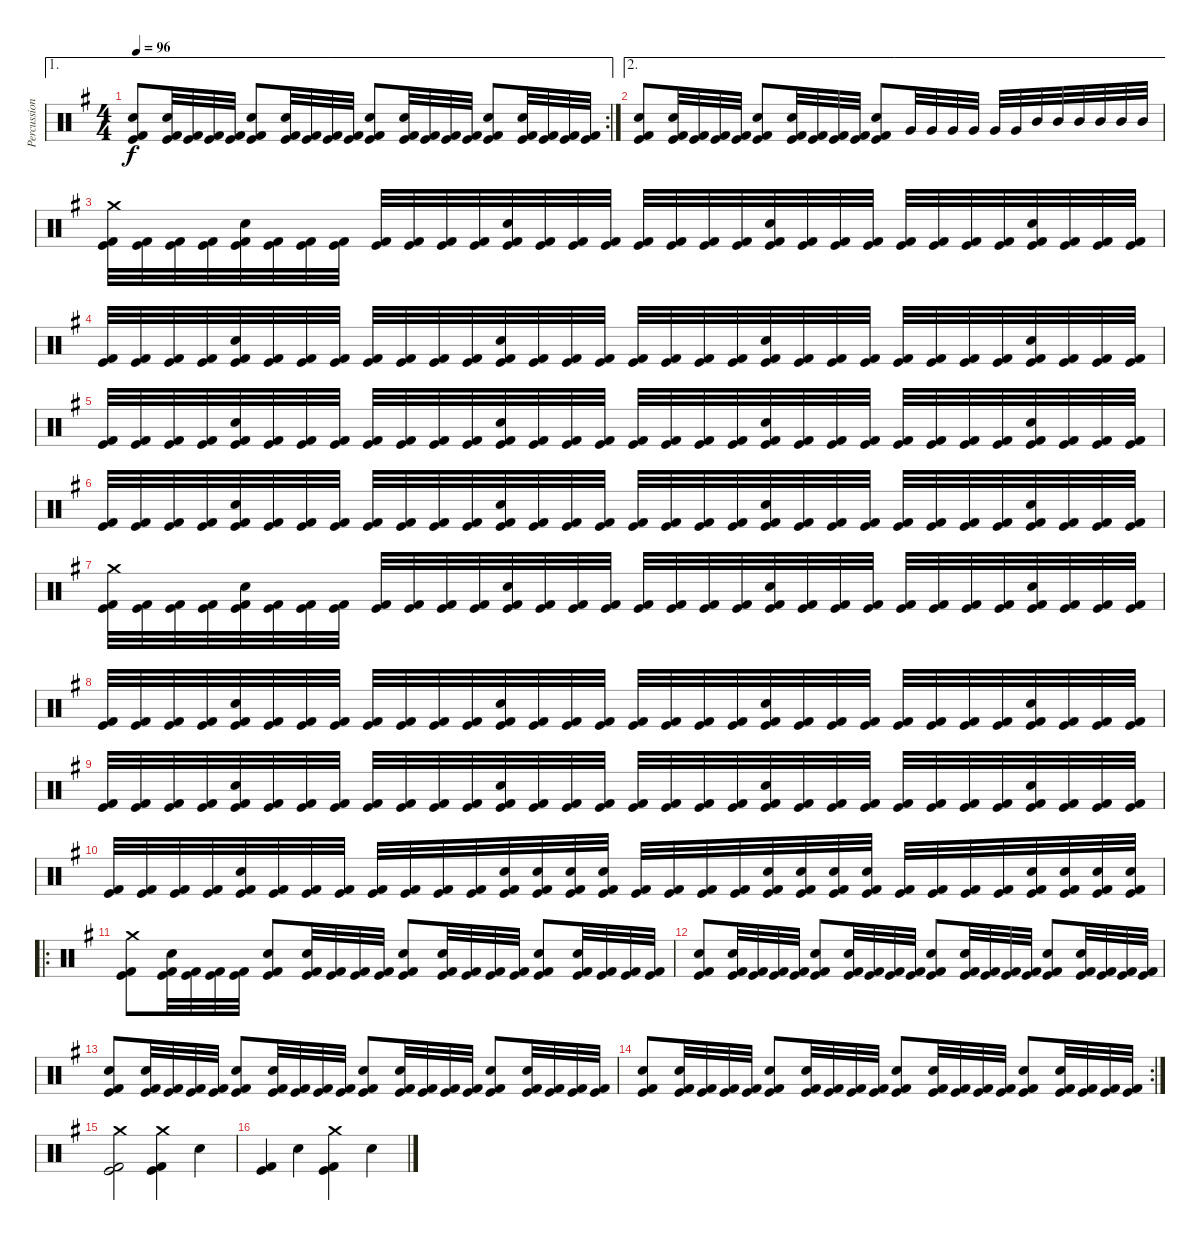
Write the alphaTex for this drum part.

\track ("Percussion" "Percussion") {instrument percussion}
\staff {score}
\articulation defaults
\ae 1
\rc 2
\ts (4 4)
\tempo 96
\clef neutral
\ks g
("Electric Snare (hit)" "Kick (hit) 2" "Kick (hit)").8{dy f} ("Electric Snare (hit)" "Kick (hit) 2" "Kick (hit)").32 ("Kick (hit) 2" "Kick (hit)").32 ("Kick (hit) 2" "Kick (hit)").32 ("Kick (hit) 2" "Kick (hit)").32 ("Electric Snare (hit)" "Kick (hit) 2" "Kick (hit)").8 ("Electric Snare (hit)" "Kick (hit) 2" "Kick (hit)").32 ("Kick (hit) 2" "Kick (hit)").32 ("Kick (hit) 2" "Kick (hit)").32 ("Kick (hit) 2" "Kick (hit)").32 ("Electric Snare (hit)" "Kick (hit) 2" "Kick (hit)").8 ("Electric Snare (hit)" "Kick (hit) 2" "Kick (hit)").32 ("Kick (hit) 2" "Kick (hit)").32 ("Kick (hit) 2" "Kick (hit)").32 ("Kick (hit) 2" "Kick (hit)").32 ("Electric Snare (hit)" "Kick (hit) 2" "Kick (hit)").8 ("Electric Snare (hit)" "Kick (hit) 2" "Kick (hit)").32 ("Kick (hit) 2" "Kick (hit)").32 ("Kick (hit) 2" "Kick (hit)").32 ("Kick (hit) 2" "Kick (hit)").32 |
\ae 2
("Electric Snare (hit)" "Kick (hit) 2" "Kick (hit)").8 ("Electric Snare (hit)" "Kick (hit) 2" "Kick (hit)").32 ("Kick (hit) 2" "Kick (hit)").32 ("Kick (hit) 2" "Kick (hit)").32 ("Kick (hit) 2" "Kick (hit)").32 ("Electric Snare (hit)" "Kick (hit) 2" "Kick (hit)").8 ("Electric Snare (hit)" "Kick (hit) 2" "Kick (hit)").32 ("Kick (hit) 2" "Kick (hit)").32 ("Kick (hit) 2" "Kick (hit)").32 ("Kick (hit) 2" "Kick (hit)").32 ("Electric Snare (hit)" "Kick (hit) 2" "Kick (hit)").8 "Very Low Tom (hit)".32 "Very Low Tom (hit)".32 "Very Low Tom (hit)".32 "Very Low Tom (hit)".32 "Very Low Tom (hit)".32 "Very Low Tom (hit)".32 "Mid Tom (hit)".32 "Mid Tom (hit)".32 "Mid Tom (hit)".32 "Mid Tom (hit)".32 "Mid Tom (hit)".32 "Mid Tom (hit)".32 |
("Crash medium (hit)" "Kick (hit)" "Kick (hit) 2").32 ("Kick (hit)" "Kick (hit) 2").32 ("Kick (hit)" "Kick (hit) 2").32 ("Kick (hit)" "Kick (hit) 2").32 ("Electric Snare (hit)" "Kick (hit)" "Kick (hit) 2").32 ("Kick (hit)" "Kick (hit) 2").32 ("Kick (hit)" "Kick (hit) 2").32 ("Kick (hit)" "Kick (hit) 2").32 ("Kick (hit)" "Kick (hit) 2").32 ("Kick (hit)" "Kick (hit) 2").32 ("Kick (hit)" "Kick (hit) 2").32 ("Kick (hit)" "Kick (hit) 2").32 ("Electric Snare (hit)" "Kick (hit)" "Kick (hit) 2").32 ("Kick (hit)" "Kick (hit) 2").32 ("Kick (hit)" "Kick (hit) 2").32 ("Kick (hit)" "Kick (hit) 2").32 ("Kick (hit)" "Kick (hit) 2").32 ("Kick (hit)" "Kick (hit) 2").32 ("Kick (hit)" "Kick (hit) 2").32 ("Kick (hit)" "Kick (hit) 2").32 ("Electric Snare (hit)" "Kick (hit)" "Kick (hit) 2").32 ("Kick (hit)" "Kick (hit) 2").32 ("Kick (hit)" "Kick (hit) 2").32 ("Kick (hit)" "Kick (hit) 2").32 ("Kick (hit)" "Kick (hit) 2").32 ("Kick (hit)" "Kick (hit) 2").32 ("Kick (hit)" "Kick (hit) 2").32 ("Kick (hit)" "Kick (hit) 2").32 ("Electric Snare (hit)" "Kick (hit)" "Kick (hit) 2").32 ("Kick (hit)" "Kick (hit) 2").32 ("Kick (hit)" "Kick (hit) 2").32 ("Kick (hit)" "Kick (hit) 2").32 |
("Kick (hit)" "Kick (hit) 2").32 ("Kick (hit)" "Kick (hit) 2").32 ("Kick (hit)" "Kick (hit) 2").32 ("Kick (hit)" "Kick (hit) 2").32 ("Electric Snare (hit)" "Kick (hit)" "Kick (hit) 2").32 ("Kick (hit)" "Kick (hit) 2").32 ("Kick (hit)" "Kick (hit) 2").32 ("Kick (hit)" "Kick (hit) 2").32 ("Kick (hit)" "Kick (hit) 2").32 ("Kick (hit)" "Kick (hit) 2").32 ("Kick (hit)" "Kick (hit) 2").32 ("Kick (hit)" "Kick (hit) 2").32 ("Electric Snare (hit)" "Kick (hit)" "Kick (hit) 2").32 ("Kick (hit)" "Kick (hit) 2").32 ("Kick (hit)" "Kick (hit) 2").32 ("Kick (hit)" "Kick (hit) 2").32 ("Kick (hit)" "Kick (hit) 2").32 ("Kick (hit)" "Kick (hit) 2").32 ("Kick (hit)" "Kick (hit) 2").32 ("Kick (hit)" "Kick (hit) 2").32 ("Electric Snare (hit)" "Kick (hit)" "Kick (hit) 2").32 ("Kick (hit)" "Kick (hit) 2").32 ("Kick (hit)" "Kick (hit) 2").32 ("Kick (hit)" "Kick (hit) 2").32 ("Kick (hit)" "Kick (hit) 2").32 ("Kick (hit)" "Kick (hit) 2").32 ("Kick (hit)" "Kick (hit) 2").32 ("Kick (hit)" "Kick (hit) 2").32 ("Electric Snare (hit)" "Kick (hit)" "Kick (hit) 2").32 ("Kick (hit)" "Kick (hit) 2").32 ("Kick (hit)" "Kick (hit) 2").32 ("Kick (hit)" "Kick (hit) 2").32 |
("Kick (hit)" "Kick (hit) 2").32 ("Kick (hit)" "Kick (hit) 2").32 ("Kick (hit)" "Kick (hit) 2").32 ("Kick (hit)" "Kick (hit) 2").32 ("Electric Snare (hit)" "Kick (hit)" "Kick (hit) 2").32 ("Kick (hit)" "Kick (hit) 2").32 ("Kick (hit)" "Kick (hit) 2").32 ("Kick (hit)" "Kick (hit) 2").32 ("Kick (hit)" "Kick (hit) 2").32 ("Kick (hit)" "Kick (hit) 2").32 ("Kick (hit)" "Kick (hit) 2").32 ("Kick (hit)" "Kick (hit) 2").32 ("Electric Snare (hit)" "Kick (hit)" "Kick (hit) 2").32 ("Kick (hit)" "Kick (hit) 2").32 ("Kick (hit)" "Kick (hit) 2").32 ("Kick (hit)" "Kick (hit) 2").32 ("Kick (hit)" "Kick (hit) 2").32 ("Kick (hit)" "Kick (hit) 2").32 ("Kick (hit)" "Kick (hit) 2").32 ("Kick (hit)" "Kick (hit) 2").32 ("Electric Snare (hit)" "Kick (hit)" "Kick (hit) 2").32 ("Kick (hit)" "Kick (hit) 2").32 ("Kick (hit)" "Kick (hit) 2").32 ("Kick (hit)" "Kick (hit) 2").32 ("Kick (hit)" "Kick (hit) 2").32 ("Kick (hit)" "Kick (hit) 2").32 ("Kick (hit)" "Kick (hit) 2").32 ("Kick (hit)" "Kick (hit) 2").32 ("Electric Snare (hit)" "Kick (hit)" "Kick (hit) 2").32 ("Kick (hit)" "Kick (hit) 2").32 ("Kick (hit)" "Kick (hit) 2").32 ("Kick (hit)" "Kick (hit) 2").32 |
("Kick (hit)" "Kick (hit) 2").32 ("Kick (hit)" "Kick (hit) 2").32 ("Kick (hit)" "Kick (hit) 2").32 ("Kick (hit)" "Kick (hit) 2").32 ("Electric Snare (hit)" "Kick (hit)" "Kick (hit) 2").32 ("Kick (hit)" "Kick (hit) 2").32 ("Kick (hit)" "Kick (hit) 2").32 ("Kick (hit)" "Kick (hit) 2").32 ("Kick (hit)" "Kick (hit) 2").32 ("Kick (hit)" "Kick (hit) 2").32 ("Kick (hit)" "Kick (hit) 2").32 ("Kick (hit)" "Kick (hit) 2").32 ("Electric Snare (hit)" "Kick (hit)" "Kick (hit) 2").32 ("Kick (hit)" "Kick (hit) 2").32 ("Kick (hit)" "Kick (hit) 2").32 ("Kick (hit)" "Kick (hit) 2").32 ("Kick (hit)" "Kick (hit) 2").32 ("Kick (hit)" "Kick (hit) 2").32 ("Kick (hit)" "Kick (hit) 2").32 ("Kick (hit)" "Kick (hit) 2").32 ("Electric Snare (hit)" "Kick (hit)" "Kick (hit) 2").32 ("Kick (hit)" "Kick (hit) 2").32 ("Kick (hit)" "Kick (hit) 2").32 ("Kick (hit)" "Kick (hit) 2").32 ("Kick (hit)" "Kick (hit) 2").32 ("Kick (hit)" "Kick (hit) 2").32 ("Kick (hit)" "Kick (hit) 2").32 ("Kick (hit)" "Kick (hit) 2").32 ("Electric Snare (hit)" "Kick (hit)" "Kick (hit) 2").32 ("Kick (hit)" "Kick (hit) 2").32 ("Kick (hit)" "Kick (hit) 2").32 ("Kick (hit)" "Kick (hit) 2").32 |
("Crash medium (hit)" "Kick (hit)" "Kick (hit) 2").32 ("Kick (hit)" "Kick (hit) 2").32 ("Kick (hit)" "Kick (hit) 2").32 ("Kick (hit)" "Kick (hit) 2").32 ("Electric Snare (hit)" "Kick (hit)" "Kick (hit) 2").32 ("Kick (hit)" "Kick (hit) 2").32 ("Kick (hit)" "Kick (hit) 2").32 ("Kick (hit)" "Kick (hit) 2").32 ("Kick (hit)" "Kick (hit) 2").32 ("Kick (hit)" "Kick (hit) 2").32 ("Kick (hit)" "Kick (hit) 2").32 ("Kick (hit)" "Kick (hit) 2").32 ("Electric Snare (hit)" "Kick (hit)" "Kick (hit) 2").32 ("Kick (hit)" "Kick (hit) 2").32 ("Kick (hit)" "Kick (hit) 2").32 ("Kick (hit)" "Kick (hit) 2").32 ("Kick (hit)" "Kick (hit) 2").32 ("Kick (hit)" "Kick (hit) 2").32 ("Kick (hit)" "Kick (hit) 2").32 ("Kick (hit)" "Kick (hit) 2").32 ("Electric Snare (hit)" "Kick (hit)" "Kick (hit) 2").32 ("Kick (hit)" "Kick (hit) 2").32 ("Kick (hit)" "Kick (hit) 2").32 ("Kick (hit)" "Kick (hit) 2").32 ("Kick (hit)" "Kick (hit) 2").32 ("Kick (hit)" "Kick (hit) 2").32 ("Kick (hit)" "Kick (hit) 2").32 ("Kick (hit)" "Kick (hit) 2").32 ("Electric Snare (hit)" "Kick (hit)" "Kick (hit) 2").32 ("Kick (hit)" "Kick (hit) 2").32 ("Kick (hit)" "Kick (hit) 2").32 ("Kick (hit)" "Kick (hit) 2").32 |
("Kick (hit)" "Kick (hit) 2").32 ("Kick (hit)" "Kick (hit) 2").32 ("Kick (hit)" "Kick (hit) 2").32 ("Kick (hit)" "Kick (hit) 2").32 ("Electric Snare (hit)" "Kick (hit)" "Kick (hit) 2").32 ("Kick (hit)" "Kick (hit) 2").32 ("Kick (hit)" "Kick (hit) 2").32 ("Kick (hit)" "Kick (hit) 2").32 ("Kick (hit)" "Kick (hit) 2").32 ("Kick (hit)" "Kick (hit) 2").32 ("Kick (hit)" "Kick (hit) 2").32 ("Kick (hit)" "Kick (hit) 2").32 ("Electric Snare (hit)" "Kick (hit)" "Kick (hit) 2").32 ("Kick (hit)" "Kick (hit) 2").32 ("Kick (hit)" "Kick (hit) 2").32 ("Kick (hit)" "Kick (hit) 2").32 ("Kick (hit)" "Kick (hit) 2").32 ("Kick (hit)" "Kick (hit) 2").32 ("Kick (hit)" "Kick (hit) 2").32 ("Kick (hit)" "Kick (hit) 2").32 ("Electric Snare (hit)" "Kick (hit)" "Kick (hit) 2").32 ("Kick (hit)" "Kick (hit) 2").32 ("Kick (hit)" "Kick (hit) 2").32 ("Kick (hit)" "Kick (hit) 2").32 ("Kick (hit)" "Kick (hit) 2").32 ("Kick (hit)" "Kick (hit) 2").32 ("Kick (hit)" "Kick (hit) 2").32 ("Kick (hit)" "Kick (hit) 2").32 ("Electric Snare (hit)" "Kick (hit)" "Kick (hit) 2").32 ("Kick (hit)" "Kick (hit) 2").32 ("Kick (hit)" "Kick (hit) 2").32 ("Kick (hit)" "Kick (hit) 2").32 |
("Kick (hit)" "Kick (hit) 2").32 ("Kick (hit)" "Kick (hit) 2").32 ("Kick (hit)" "Kick (hit) 2").32 ("Kick (hit)" "Kick (hit) 2").32 ("Electric Snare (hit)" "Kick (hit)" "Kick (hit) 2").32 ("Kick (hit)" "Kick (hit) 2").32 ("Kick (hit)" "Kick (hit) 2").32 ("Kick (hit)" "Kick (hit) 2").32 ("Kick (hit)" "Kick (hit) 2").32 ("Kick (hit)" "Kick (hit) 2").32 ("Kick (hit)" "Kick (hit) 2").32 ("Kick (hit)" "Kick (hit) 2").32 ("Electric Snare (hit)" "Kick (hit)" "Kick (hit) 2").32 ("Kick (hit)" "Kick (hit) 2").32 ("Kick (hit)" "Kick (hit) 2").32 ("Kick (hit)" "Kick (hit) 2").32 ("Kick (hit)" "Kick (hit) 2").32 ("Kick (hit)" "Kick (hit) 2").32 ("Kick (hit)" "Kick (hit) 2").32 ("Kick (hit)" "Kick (hit) 2").32 ("Electric Snare (hit)" "Kick (hit)" "Kick (hit) 2").32 ("Kick (hit)" "Kick (hit) 2").32 ("Kick (hit)" "Kick (hit) 2").32 ("Kick (hit)" "Kick (hit) 2").32 ("Kick (hit)" "Kick (hit) 2").32 ("Kick (hit)" "Kick (hit) 2").32 ("Kick (hit)" "Kick (hit) 2").32 ("Kick (hit)" "Kick (hit) 2").32 ("Electric Snare (hit)" "Kick (hit)" "Kick (hit) 2").32 ("Kick (hit)" "Kick (hit) 2").32 ("Kick (hit)" "Kick (hit) 2").32 ("Kick (hit)" "Kick (hit) 2").32 |
("Kick (hit)" "Kick (hit) 2").32 ("Kick (hit)" "Kick (hit) 2").32 ("Kick (hit)" "Kick (hit) 2").32 ("Kick (hit)" "Kick (hit) 2").32 ("Electric Snare (hit)" "Kick (hit)" "Kick (hit) 2").32 ("Kick (hit)" "Kick (hit) 2").32 ("Kick (hit)" "Kick (hit) 2").32 ("Kick (hit)" "Kick (hit) 2").32 ("Kick (hit)" "Kick (hit) 2").32 ("Kick (hit)" "Kick (hit) 2").32 ("Kick (hit)" "Kick (hit) 2").32 ("Kick (hit)" "Kick (hit) 2").32 ("Electric Snare (hit)" "Kick (hit)" "Kick (hit) 2").32 ("Electric Snare (hit)" "Kick (hit)" "Kick (hit) 2").32 ("Electric Snare (hit)" "Kick (hit)" "Kick (hit) 2").32 ("Electric Snare (hit)" "Kick (hit)" "Kick (hit) 2").32 ("Kick (hit)" "Kick (hit) 2").32 ("Kick (hit)" "Kick (hit) 2").32 ("Kick (hit)" "Kick (hit) 2").32 ("Kick (hit)" "Kick (hit) 2").32 ("Electric Snare (hit)" "Kick (hit)" "Kick (hit) 2").32 ("Electric Snare (hit)" "Kick (hit)" "Kick (hit) 2").32 ("Electric Snare (hit)" "Kick (hit)" "Kick (hit) 2").32 ("Electric Snare (hit)" "Kick (hit)" "Kick (hit) 2").32 ("Kick (hit)" "Kick (hit) 2").32 ("Kick (hit)" "Kick (hit) 2").32 ("Kick (hit)" "Kick (hit) 2").32 ("Kick (hit)" "Kick (hit) 2").32 ("Electric Snare (hit)" "Kick (hit)" "Kick (hit) 2").32 ("Electric Snare (hit)" "Kick (hit)" "Kick (hit) 2").32 ("Electric Snare (hit)" "Kick (hit)" "Kick (hit) 2").32 ("Electric Snare (hit)" "Kick (hit)" "Kick (hit) 2").32 |
\ro
("Crash medium (hit)" "Kick (hit) 2" "Kick (hit)").8 ("Electric Snare (hit)" "Kick (hit) 2" "Kick (hit)").32 ("Kick (hit) 2" "Kick (hit)").32 ("Kick (hit) 2" "Kick (hit)").32 ("Kick (hit) 2" "Kick (hit)").32 ("Electric Snare (hit)" "Kick (hit) 2" "Kick (hit)").8 ("Electric Snare (hit)" "Kick (hit) 2" "Kick (hit)").32 ("Kick (hit) 2" "Kick (hit)").32 ("Kick (hit) 2" "Kick (hit)").32 ("Kick (hit) 2" "Kick (hit)").32 ("Electric Snare (hit)" "Kick (hit) 2" "Kick (hit)").8 ("Electric Snare (hit)" "Kick (hit) 2" "Kick (hit)").32 ("Kick (hit) 2" "Kick (hit)").32 ("Kick (hit) 2" "Kick (hit)").32 ("Kick (hit) 2" "Kick (hit)").32 ("Electric Snare (hit)" "Kick (hit) 2" "Kick (hit)").8 ("Electric Snare (hit)" "Kick (hit) 2" "Kick (hit)").32 ("Kick (hit) 2" "Kick (hit)").32 ("Kick (hit) 2" "Kick (hit)").32 ("Kick (hit) 2" "Kick (hit)").32 |
("Electric Snare (hit)" "Kick (hit) 2" "Kick (hit)").8 ("Electric Snare (hit)" "Kick (hit) 2" "Kick (hit)").32 ("Kick (hit) 2" "Kick (hit)").32 ("Kick (hit) 2" "Kick (hit)").32 ("Kick (hit) 2" "Kick (hit)").32 ("Electric Snare (hit)" "Kick (hit) 2" "Kick (hit)").8 ("Electric Snare (hit)" "Kick (hit) 2" "Kick (hit)").32 ("Kick (hit) 2" "Kick (hit)").32 ("Kick (hit) 2" "Kick (hit)").32 ("Kick (hit) 2" "Kick (hit)").32 ("Electric Snare (hit)" "Kick (hit) 2" "Kick (hit)").8 ("Electric Snare (hit)" "Kick (hit) 2" "Kick (hit)").32 ("Kick (hit) 2" "Kick (hit)").32 ("Kick (hit) 2" "Kick (hit)").32 ("Kick (hit) 2" "Kick (hit)").32 ("Electric Snare (hit)" "Kick (hit) 2" "Kick (hit)").8 ("Electric Snare (hit)" "Kick (hit) 2" "Kick (hit)").32 ("Kick (hit) 2" "Kick (hit)").32 ("Kick (hit) 2" "Kick (hit)").32 ("Kick (hit) 2" "Kick (hit)").32 |
("Electric Snare (hit)" "Kick (hit) 2" "Kick (hit)").8 ("Electric Snare (hit)" "Kick (hit) 2" "Kick (hit)").32 ("Kick (hit) 2" "Kick (hit)").32 ("Kick (hit) 2" "Kick (hit)").32 ("Kick (hit) 2" "Kick (hit)").32 ("Electric Snare (hit)" "Kick (hit) 2" "Kick (hit)").8 ("Electric Snare (hit)" "Kick (hit) 2" "Kick (hit)").32 ("Kick (hit) 2" "Kick (hit)").32 ("Kick (hit) 2" "Kick (hit)").32 ("Kick (hit) 2" "Kick (hit)").32 ("Electric Snare (hit)" "Kick (hit) 2" "Kick (hit)").8 ("Electric Snare (hit)" "Kick (hit) 2" "Kick (hit)").32 ("Kick (hit) 2" "Kick (hit)").32 ("Kick (hit) 2" "Kick (hit)").32 ("Kick (hit) 2" "Kick (hit)").32 ("Electric Snare (hit)" "Kick (hit) 2" "Kick (hit)").8 ("Electric Snare (hit)" "Kick (hit) 2" "Kick (hit)").32 ("Kick (hit) 2" "Kick (hit)").32 ("Kick (hit) 2" "Kick (hit)").32 ("Kick (hit) 2" "Kick (hit)").32 |
\rc 2
("Electric Snare (hit)" "Kick (hit) 2" "Kick (hit)").8 ("Electric Snare (hit)" "Kick (hit) 2" "Kick (hit)").32 ("Kick (hit) 2" "Kick (hit)").32 ("Kick (hit) 2" "Kick (hit)").32 ("Kick (hit) 2" "Kick (hit)").32 ("Electric Snare (hit)" "Kick (hit) 2" "Kick (hit)").8 ("Electric Snare (hit)" "Kick (hit) 2" "Kick (hit)").32 ("Kick (hit) 2" "Kick (hit)").32 ("Kick (hit) 2" "Kick (hit)").32 ("Kick (hit) 2" "Kick (hit)").32 ("Electric Snare (hit)" "Kick (hit) 2" "Kick (hit)").8 ("Electric Snare (hit)" "Kick (hit) 2" "Kick (hit)").32 ("Kick (hit) 2" "Kick (hit)").32 ("Kick (hit) 2" "Kick (hit)").32 ("Kick (hit) 2" "Kick (hit)").32 ("Electric Snare (hit)" "Kick (hit) 2" "Kick (hit)").8 ("Electric Snare (hit)" "Kick (hit) 2" "Kick (hit)").32 ("Kick (hit) 2" "Kick (hit)").32 ("Kick (hit) 2" "Kick (hit)").32 ("Kick (hit) 2" "Kick (hit)").32 |
("Crash medium (hit)" "Kick (hit) 2" "Kick (hit)").2 ("Crash medium (hit)" "Kick (hit) 2" "Kick (hit)").4 "Electric Snare (hit)".4 |
("Kick (hit) 2" "Kick (hit)").4 "Electric Snare (hit)".4 ("Crash medium (hit)" "Kick (hit) 2" "Kick (hit)").4 "Electric Snare (hit)".4
